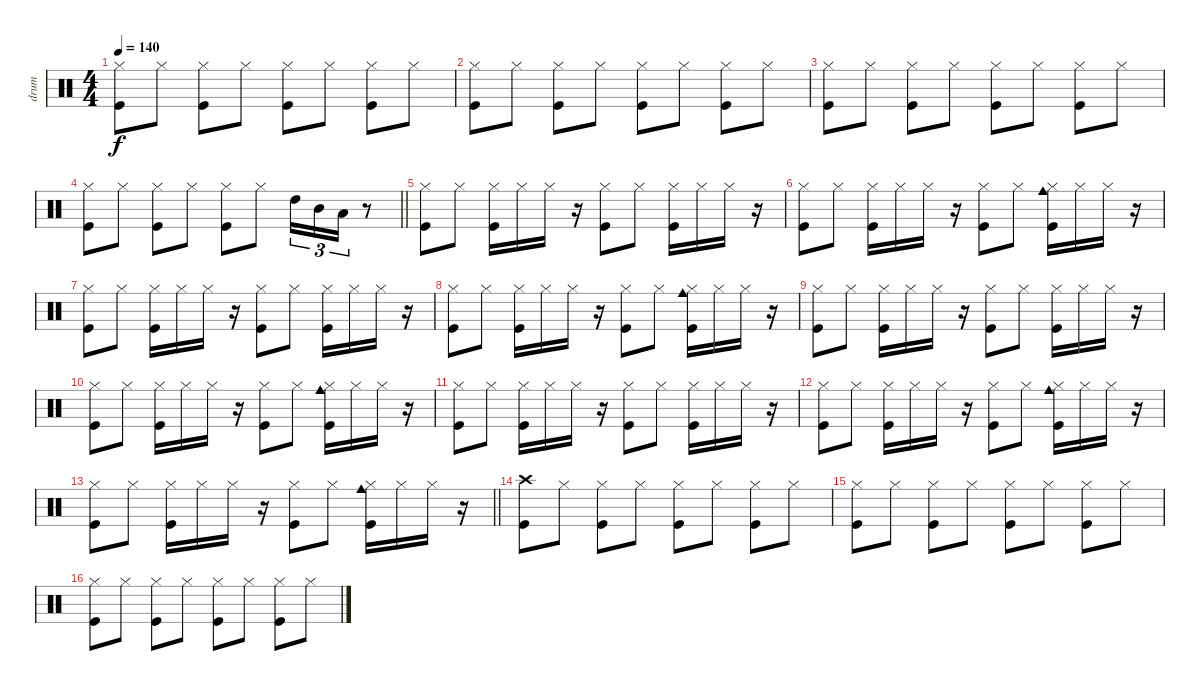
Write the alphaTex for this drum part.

\track ("drum" "drum") {instrument percussion}
\staff {score}
\articulation defaults
\ts (4 4)
\tempo 140
\clef neutral
\ks c
("Hi-Hat (closed)" "Kick (hit)").8{dy f} "Hi-Hat (closed)".8 ("Hi-Hat (closed)" "Kick (hit)").8 "Hi-Hat (closed)".8 ("Hi-Hat (closed)" "Kick (hit)").8 "Hi-Hat (closed)".8 ("Hi-Hat (closed)" "Kick (hit)").8 "Hi-Hat (closed)".8 |
("Hi-Hat (closed)" "Kick (hit)").8 "Hi-Hat (closed)".8 ("Hi-Hat (closed)" "Kick (hit)").8 "Hi-Hat (closed)".8 ("Hi-Hat (closed)" "Kick (hit)").8 "Hi-Hat (closed)".8 ("Hi-Hat (closed)" "Kick (hit)").8 "Hi-Hat (closed)".8 |
("Hi-Hat (closed)" "Kick (hit)").8 "Hi-Hat (closed)".8 ("Hi-Hat (closed)" "Kick (hit)").8 "Hi-Hat (closed)".8 ("Hi-Hat (closed)" "Kick (hit)").8 "Hi-Hat (closed)".8 ("Hi-Hat (closed)" "Kick (hit)").8 "Hi-Hat (closed)".8 |
\barLineRight lightlight
("Hi-Hat (closed)" "Kick (hit)").8 "Hi-Hat (closed)".8 ("Hi-Hat (closed)" "Kick (hit)").8 "Hi-Hat (closed)".8 ("Hi-Hat (closed)" "Kick (hit)").8 "Hi-Hat (closed)".8 "High Tom (hit)".16{tu (3 2)} "Mid Tom (hit)".16{tu (3 2)} "Low Tom (hit)".16{tu (3 2)} r.8 |
("Hi-Hat (closed)" "Kick (hit)").8 "Hi-Hat (closed)".8 ("Hi-Hat (closed)" "Kick (hit)").16 "Hi-Hat (closed)".16 "Hi-Hat (closed)".16 r.16 ("Hi-Hat (closed)" "Kick (hit)").8 "Hi-Hat (closed)".8 ("Hi-Hat (closed)" "Kick (hit)").16 "Hi-Hat (closed)".16 "Hi-Hat (closed)".16 r.16 |
("Hi-Hat (closed)" "Kick (hit)").8 "Hi-Hat (closed)".8 ("Hi-Hat (closed)" "Kick (hit)").16 "Hi-Hat (closed)".16 "Hi-Hat (closed)".16 r.16 ("Hi-Hat (closed)" "Kick (hit)").8 "Hi-Hat (closed)".8 ("Hi-Hat (closed)" "Cowbell medium (hit)" "Kick (hit)").16 "Hi-Hat (closed)".16 "Hi-Hat (closed)".16 r.16 |
("Hi-Hat (closed)" "Kick (hit)").8 "Hi-Hat (closed)".8 ("Hi-Hat (closed)" "Kick (hit)").16 "Hi-Hat (closed)".16 "Hi-Hat (closed)".16 r.16 ("Hi-Hat (closed)" "Kick (hit)").8 "Hi-Hat (closed)".8 ("Hi-Hat (closed)" "Kick (hit)").16 "Hi-Hat (closed)".16 "Hi-Hat (closed)".16 r.16 |
("Hi-Hat (closed)" "Kick (hit)").8 "Hi-Hat (closed)".8 ("Hi-Hat (closed)" "Kick (hit)").16 "Hi-Hat (closed)".16 "Hi-Hat (closed)".16 r.16 ("Hi-Hat (closed)" "Kick (hit)").8 "Hi-Hat (closed)".8 ("Hi-Hat (closed)" "Cowbell medium (hit)" "Kick (hit)").16 "Hi-Hat (closed)".16 "Hi-Hat (closed)".16 r.16 |
("Hi-Hat (closed)" "Kick (hit)").8 "Hi-Hat (closed)".8 ("Hi-Hat (closed)" "Kick (hit)").16 "Hi-Hat (closed)".16 "Hi-Hat (closed)".16 r.16 ("Hi-Hat (closed)" "Kick (hit)").8 "Hi-Hat (closed)".8 ("Hi-Hat (closed)" "Kick (hit)").16 "Hi-Hat (closed)".16 "Hi-Hat (closed)".16 r.16 |
("Hi-Hat (closed)" "Kick (hit)").8 "Hi-Hat (closed)".8 ("Hi-Hat (closed)" "Kick (hit)").16 "Hi-Hat (closed)".16 "Hi-Hat (closed)".16 r.16 ("Hi-Hat (closed)" "Kick (hit)").8 "Hi-Hat (closed)".8 ("Hi-Hat (closed)" "Cowbell medium (hit)" "Kick (hit)").16 "Hi-Hat (closed)".16 "Hi-Hat (closed)".16 r.16 |
("Hi-Hat (closed)" "Kick (hit)").8 "Hi-Hat (closed)".8 ("Hi-Hat (closed)" "Kick (hit)").16 "Hi-Hat (closed)".16 "Hi-Hat (closed)".16 r.16 ("Hi-Hat (closed)" "Kick (hit)").8 "Hi-Hat (closed)".8 ("Hi-Hat (closed)" "Kick (hit)").16 "Hi-Hat (closed)".16 "Hi-Hat (closed)".16 r.16 |
("Hi-Hat (closed)" "Kick (hit)").8 "Hi-Hat (closed)".8 ("Hi-Hat (closed)" "Kick (hit)").16 "Hi-Hat (closed)".16 "Hi-Hat (closed)".16 r.16 ("Hi-Hat (closed)" "Kick (hit)").8 "Hi-Hat (closed)".8 ("Hi-Hat (closed)" "Cowbell medium (hit)" "Kick (hit)").16 "Hi-Hat (closed)".16 "Hi-Hat (closed)".16 r.16 |
\barLineRight lightlight
("Hi-Hat (closed)" "Kick (hit)").8 "Hi-Hat (closed)".8 ("Hi-Hat (closed)" "Kick (hit)").16 "Hi-Hat (closed)".16 "Hi-Hat (closed)".16 r.16 ("Hi-Hat (closed)" "Kick (hit)").8 "Hi-Hat (closed)".8 ("Hi-Hat (closed)" "Cowbell medium (hit)" "Kick (hit)").16 "Hi-Hat (closed)".16 "Hi-Hat (closed)".16 r.16 |
("Crash high (hit)" "Kick (hit)").8 "Hi-Hat (closed)".8 ("Hi-Hat (closed)" "Kick (hit)").8 "Hi-Hat (closed)".8 ("Hi-Hat (closed)" "Kick (hit)").8 "Hi-Hat (closed)".8 ("Hi-Hat (closed)" "Kick (hit)").8 "Hi-Hat (closed)".8 |
("Hi-Hat (closed)" "Kick (hit)").8 "Hi-Hat (closed)".8 ("Hi-Hat (closed)" "Kick (hit)").8 "Hi-Hat (closed)".8 ("Hi-Hat (closed)" "Kick (hit)").8 "Hi-Hat (closed)".8 ("Hi-Hat (closed)" "Kick (hit)").8 "Hi-Hat (closed)".8 |
("Hi-Hat (closed)" "Kick (hit)").8 "Hi-Hat (closed)".8 ("Hi-Hat (closed)" "Kick (hit)").8 "Hi-Hat (closed)".8 ("Hi-Hat (closed)" "Kick (hit)").8 "Hi-Hat (closed)".8 ("Hi-Hat (closed)" "Kick (hit)").8 "Hi-Hat (closed)".8
